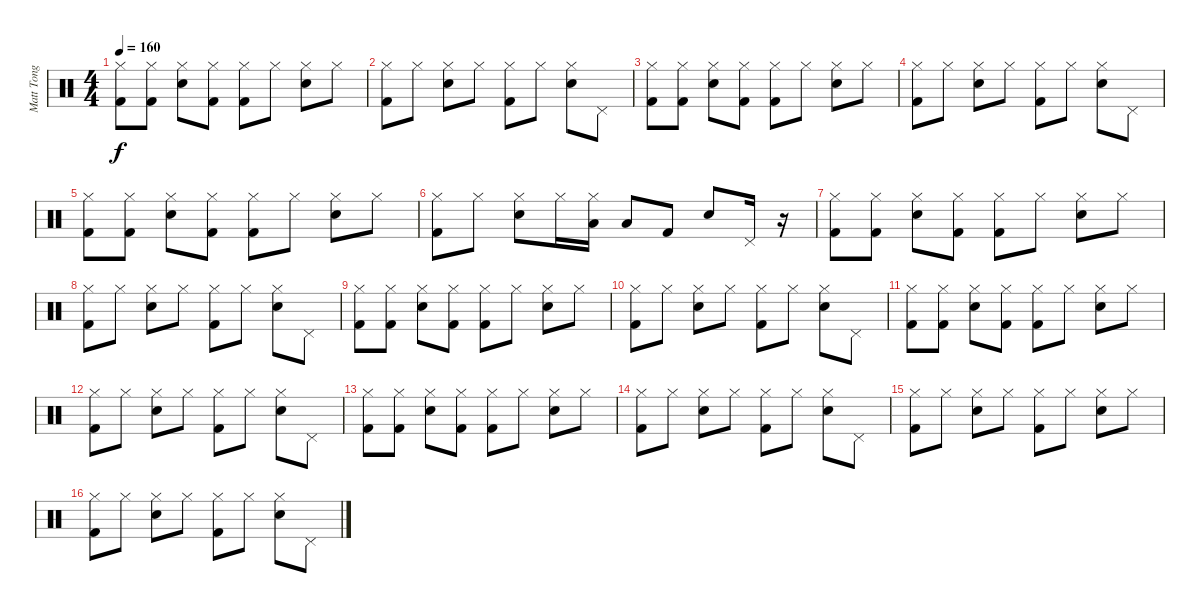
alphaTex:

\track ("Matt Tong" "Matt Tong") {instrument percussion}
\staff {score}
\articulation defaults
\ts (4 4)
\tempo 160
\clef neutral
\ks c
("Hi-Hat (closed)" "Kick (hit) 2").8{dy f} ("Hi-Hat (closed)" "Kick (hit) 2").8 ("Hi-Hat (closed)" "Snare (hit) 2").8 ("Hi-Hat (closed)" "Kick (hit) 2").8 ("Hi-Hat (closed)" "Kick (hit) 2").8 "Hi-Hat (closed)".8 ("Hi-Hat (closed)" "Snare (hit) 2").8 "Hi-Hat (closed)".8 |
("Hi-Hat (closed)" "Kick (hit) 2").8 "Hi-Hat (closed)".8 ("Hi-Hat (closed)" "Snare (hit) 2").8 "Hi-Hat (closed)".8 ("Hi-Hat (closed)" "Kick (hit) 2").8 "Hi-Hat (closed)".8 ("Hi-Hat (closed)" "Snare (hit) 2").8 "Pedal Hi-Hat (hit)".8 |
("Hi-Hat (closed)" "Kick (hit) 2").8 ("Hi-Hat (closed)" "Kick (hit) 2").8 ("Hi-Hat (closed)" "Snare (hit) 2").8 ("Hi-Hat (closed)" "Kick (hit) 2").8 ("Hi-Hat (closed)" "Kick (hit) 2").8 "Hi-Hat (closed)".8 ("Hi-Hat (closed)" "Snare (hit) 2").8 "Hi-Hat (closed)".8 |
("Hi-Hat (closed)" "Kick (hit) 2").8 "Hi-Hat (closed)".8 ("Hi-Hat (closed)" "Snare (hit) 2").8 "Hi-Hat (closed)".8 ("Hi-Hat (closed)" "Kick (hit) 2").8 "Hi-Hat (closed)".8 ("Hi-Hat (closed)" "Snare (hit) 2").8 "Pedal Hi-Hat (hit)".8 |
("Hi-Hat (closed)" "Kick (hit) 2").8 ("Hi-Hat (closed)" "Kick (hit) 2").8 ("Hi-Hat (closed)" "Snare (hit) 2").8 ("Hi-Hat (closed)" "Kick (hit) 2").8 ("Hi-Hat (closed)" "Kick (hit) 2").8 "Hi-Hat (closed)".8 ("Hi-Hat (closed)" "Snare (hit) 2").8 "Hi-Hat (closed)".8 |
("Hi-Hat (closed)" "Kick (hit) 2").8 "Hi-Hat (closed)".8 ("Hi-Hat (closed)" "Snare (hit) 2").8 "Hi-Hat (closed)".16 ("Hi-Hat (closed)" "Low Tom (hit)").16 "Low Tom (hit)".8 "Kick (hit) 2".8 "Snare (hit) 2".8 "Pedal Hi-Hat (hit)".16 r.16 |
("Hi-Hat (closed)" "Kick (hit) 2").8 ("Hi-Hat (closed)" "Kick (hit) 2").8 ("Hi-Hat (closed)" "Snare (hit) 2").8 ("Hi-Hat (closed)" "Kick (hit) 2").8 ("Hi-Hat (closed)" "Kick (hit) 2").8 "Hi-Hat (closed)".8 ("Hi-Hat (closed)" "Snare (hit) 2").8 "Hi-Hat (closed)".8 |
("Hi-Hat (closed)" "Kick (hit) 2").8 "Hi-Hat (closed)".8 ("Hi-Hat (closed)" "Snare (hit) 2").8 "Hi-Hat (closed)".8 ("Hi-Hat (closed)" "Kick (hit) 2").8 "Hi-Hat (closed)".8 ("Hi-Hat (closed)" "Snare (hit) 2").8 "Pedal Hi-Hat (hit)".8 |
("Hi-Hat (closed)" "Kick (hit) 2").8 ("Hi-Hat (closed)" "Kick (hit) 2").8 ("Hi-Hat (closed)" "Snare (hit) 2").8 ("Hi-Hat (closed)" "Kick (hit) 2").8 ("Hi-Hat (closed)" "Kick (hit) 2").8 "Hi-Hat (closed)".8 ("Hi-Hat (closed)" "Snare (hit) 2").8 "Hi-Hat (closed)".8 |
("Hi-Hat (closed)" "Kick (hit) 2").8 "Hi-Hat (closed)".8 ("Hi-Hat (closed)" "Snare (hit) 2").8 "Hi-Hat (closed)".8 ("Hi-Hat (closed)" "Kick (hit) 2").8 "Hi-Hat (closed)".8 ("Hi-Hat (closed)" "Snare (hit) 2").8 "Pedal Hi-Hat (hit)".8 |
("Hi-Hat (closed)" "Kick (hit) 2").8 ("Hi-Hat (closed)" "Kick (hit) 2").8 ("Hi-Hat (closed)" "Snare (hit) 2").8 ("Hi-Hat (closed)" "Kick (hit) 2").8 ("Hi-Hat (closed)" "Kick (hit) 2").8 "Hi-Hat (closed)".8 ("Hi-Hat (closed)" "Snare (hit) 2").8 "Hi-Hat (closed)".8 |
("Hi-Hat (closed)" "Kick (hit) 2").8 "Hi-Hat (closed)".8 ("Hi-Hat (closed)" "Snare (hit) 2").8 "Hi-Hat (closed)".8 ("Hi-Hat (closed)" "Kick (hit) 2").8 "Hi-Hat (closed)".8 ("Hi-Hat (closed)" "Snare (hit) 2").8 "Pedal Hi-Hat (hit)".8 |
("Hi-Hat (closed)" "Kick (hit) 2").8 ("Hi-Hat (closed)" "Kick (hit) 2").8 ("Hi-Hat (closed)" "Snare (hit) 2").8 ("Hi-Hat (closed)" "Kick (hit) 2").8 ("Hi-Hat (closed)" "Kick (hit) 2").8 "Hi-Hat (closed)".8 ("Hi-Hat (closed)" "Snare (hit) 2").8 "Hi-Hat (closed)".8 |
("Hi-Hat (closed)" "Kick (hit) 2").8 "Hi-Hat (closed)".8 ("Hi-Hat (closed)" "Snare (hit) 2").8 "Hi-Hat (closed)".8 ("Hi-Hat (closed)" "Kick (hit) 2").8 "Hi-Hat (closed)".8 ("Hi-Hat (closed)" "Snare (hit) 2").8 "Pedal Hi-Hat (hit)".8 |
("Hi-Hat (closed)" "Kick (hit) 2").8 "Hi-Hat (closed)".8 ("Hi-Hat (closed)" "Snare (hit) 2").8 "Hi-Hat (closed)".8 ("Hi-Hat (closed)" "Kick (hit) 2").8 "Hi-Hat (closed)".8 ("Hi-Hat (closed)" "Snare (hit) 2").8 "Hi-Hat (closed)".8 |
("Hi-Hat (closed)" "Kick (hit) 2").8 "Hi-Hat (closed)".8 ("Hi-Hat (closed)" "Snare (hit) 2").8 "Hi-Hat (closed)".8 ("Hi-Hat (closed)" "Kick (hit) 2").8 "Hi-Hat (closed)".8 ("Hi-Hat (closed)" "Snare (hit) 2").8 "Pedal Hi-Hat (hit)".8
